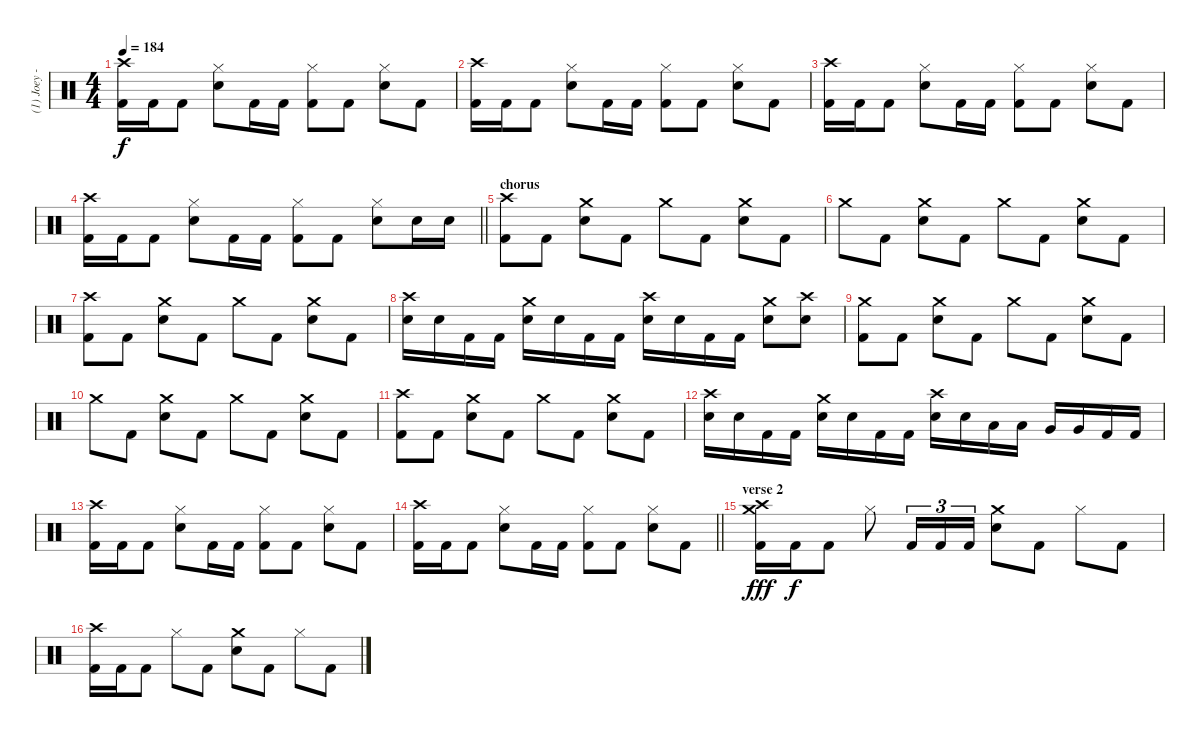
\track ("(1) Joey - drums" "(1) Joey -") {instrument percussion}
\staff {score}
\articulation defaults
\ts (4 4)
\tempo 184
\clef neutral
\ks c
("Crash high (hit)" "Kick (hit) 2").16{dy f} "Kick (hit) 2".16 "Kick (hit) 2".8 ("Hi-Hat (closed)" "Electric Snare (hit)").8 "Kick (hit) 2".16 "Kick (hit) 2".16 ("Hi-Hat (closed)" "Kick (hit) 2").8 "Kick (hit) 2".8 ("Hi-Hat (closed)" "Electric Snare (hit)").8 "Kick (hit) 2".8 |
("Crash high (hit)" "Kick (hit) 2").16 "Kick (hit) 2".16 "Kick (hit) 2".8 ("Hi-Hat (closed)" "Electric Snare (hit)").8 "Kick (hit) 2".16 "Kick (hit) 2".16 ("Hi-Hat (closed)" "Kick (hit) 2").8 "Kick (hit) 2".8 ("Hi-Hat (closed)" "Electric Snare (hit)").8 "Kick (hit) 2".8 |
("Crash high (hit)" "Kick (hit) 2").16 "Kick (hit) 2".16 "Kick (hit) 2".8 ("Hi-Hat (closed)" "Electric Snare (hit)").8 "Kick (hit) 2".16 "Kick (hit) 2".16 ("Hi-Hat (closed)" "Kick (hit) 2").8 "Kick (hit) 2".8 ("Hi-Hat (closed)" "Electric Snare (hit)").8 "Kick (hit) 2".8 |
\barLineRight lightlight
("Crash high (hit)" "Kick (hit) 2").16 "Kick (hit) 2".16 "Kick (hit) 2".8 ("Hi-Hat (closed)" "Electric Snare (hit)").8 "Kick (hit) 2".16 "Kick (hit) 2".16 ("Hi-Hat (closed)" "Kick (hit) 2").8 "Kick (hit) 2".8 ("Hi-Hat (closed)" "Electric Snare (hit)").8 "Electric Snare (hit)".16 "Electric Snare (hit)".16 |
\section ("" "chorus")
("Crash high (hit)" "Kick (hit) 2").8 "Kick (hit) 2".8 ("Crash medium (hit)" "Electric Snare (hit)").8 "Kick (hit) 2".8 "Crash medium (hit)".8 "Kick (hit) 2".8 ("Crash medium (hit)" "Electric Snare (hit)").8 "Kick (hit) 2".8 |
"Crash medium (hit)".8 "Kick (hit) 2".8 ("Crash medium (hit)" "Electric Snare (hit)").8 "Kick (hit) 2".8 "Crash medium (hit)".8 "Kick (hit) 2".8 ("Crash medium (hit)" "Electric Snare (hit)").8 "Kick (hit) 2".8 |
("Crash high (hit)" "Kick (hit) 2").8 "Kick (hit) 2".8 ("Crash medium (hit)" "Electric Snare (hit)").8 "Kick (hit) 2".8 "Crash medium (hit)".8 "Kick (hit) 2".8 ("Crash medium (hit)" "Electric Snare (hit)").8 "Kick (hit) 2".8 |
("Crash high (hit)" "Electric Snare (hit)").16 "Electric Snare (hit)".16 "Kick (hit) 2".16 "Kick (hit) 2".16 ("Crash medium (hit)" "Electric Snare (hit)").16 "Electric Snare (hit)".16 "Kick (hit) 2".16 "Kick (hit) 2".16 ("Crash high (hit)" "Electric Snare (hit)").16 "Electric Snare (hit)".16 "Kick (hit) 2".16 "Kick (hit) 2".16 ("Crash medium (hit)" "Electric Snare (hit)").8 ("Crash high (hit)" "Electric Snare (hit)").8 |
("Crash medium (hit)" "Kick (hit) 2").8 "Kick (hit) 2".8 ("Crash medium (hit)" "Electric Snare (hit)").8 "Kick (hit) 2".8 "Crash medium (hit)".8 "Kick (hit) 2".8 ("Crash medium (hit)" "Electric Snare (hit)").8 "Kick (hit) 2".8 |
"Crash medium (hit)".8 "Kick (hit) 2".8 ("Crash medium (hit)" "Electric Snare (hit)").8 "Kick (hit) 2".8 "Crash medium (hit)".8 "Kick (hit) 2".8 ("Crash medium (hit)" "Electric Snare (hit)").8 "Kick (hit) 2".8 |
("Crash high (hit)" "Kick (hit) 2").8 "Kick (hit) 2".8 ("Crash medium (hit)" "Electric Snare (hit)").8 "Kick (hit) 2".8 "Crash medium (hit)".8 "Kick (hit) 2".8 ("Crash medium (hit)" "Electric Snare (hit)").8 "Kick (hit) 2".8 |
("Crash high (hit)" "Electric Snare (hit)").16 "Electric Snare (hit)".16 "Kick (hit) 2".16 "Kick (hit) 2".16 ("Crash medium (hit)" "Electric Snare (hit)").16 "Electric Snare (hit)".16 "Kick (hit) 2".16 "Kick (hit) 2".16 ("Crash high (hit)" "Electric Snare (hit)").16 "Electric Snare (hit)".16 "Low Tom (hit)".16 "Low Tom (hit)".16 "Very Low Tom (hit)".16 "Very Low Tom (hit)".16 "Kick (hit) 2".16 "Kick (hit) 2".16 |
("Crash high (hit)" "Kick (hit) 2").16 "Kick (hit) 2".16 "Kick (hit) 2".8 ("Hi-Hat (closed)" "Electric Snare (hit)").8 "Kick (hit) 2".16 "Kick (hit) 2".16 ("Hi-Hat (closed)" "Kick (hit) 2").8 "Kick (hit) 2".8 ("Hi-Hat (closed)" "Electric Snare (hit)").8 "Kick (hit) 2".8 |
\barLineRight lightlight
("Crash high (hit)" "Kick (hit) 2").16 "Kick (hit) 2".16 "Kick (hit) 2".8 ("Hi-Hat (closed)" "Electric Snare (hit)").8 "Kick (hit) 2".16 "Kick (hit) 2".16 ("Hi-Hat (closed)" "Kick (hit) 2").8 "Kick (hit) 2".8 ("Hi-Hat (closed)" "Electric Snare (hit)").8 "Kick (hit) 2".8 |
\section ("" "verse 2")
("Crash high (hit)" "Crash medium (hit)" "Kick (hit) 2").16{dy fff} "Kick (hit) 2".16{dy f} "Kick (hit) 2".8 "Hi-Hat (closed)".8 "Kick (hit) 2".16{tu (3 2)} "Kick (hit) 2".16{tu (3 2)} "Kick (hit) 2".16{tu (3 2)} ("Crash medium (hit)" "Electric Snare (hit)").8 "Kick (hit) 2".8 "Hi-Hat (closed)".8 "Kick (hit) 2".8 |
("Crash high (hit)" "Kick (hit) 2").16 "Kick (hit) 2".16 "Kick (hit) 2".8 "Hi-Hat (closed)".8 "Kick (hit) 2".8 ("Crash medium (hit)" "Electric Snare (hit)").8 "Kick (hit) 2".8 "Hi-Hat (closed)".8 "Kick (hit) 2".8
